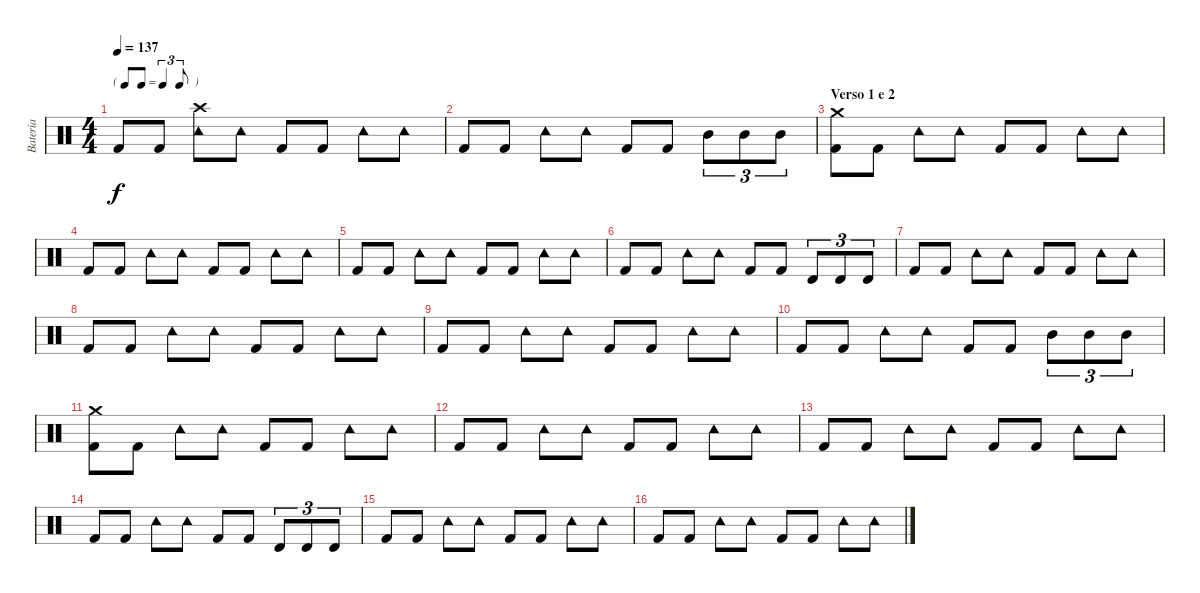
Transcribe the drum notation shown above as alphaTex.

\track ("Bateria" "Bateria") {instrument percussion}
\staff {score}
\articulation defaults
\ts (4 4)
\tf triplet8th
\tempo 137
\clef neutral
\ks c "Kick (hit) 2".8{dy f} "Kick (hit) 2".8
("Tambourine (hit)" "Crash high (hit)").8 "Tambourine (hit)".8 "Kick (hit) 2".8 "Kick (hit) 2".8 "Tambourine (hit)".8 "Tambourine (hit)".8 |
"Kick (hit) 2".8 "Kick (hit) 2".8 "Tambourine (hit)".8 "Tambourine (hit)".8 "Kick (hit) 2".8 "Kick (hit) 2".8 "Mid Tom (hit)".8{tu (3 2)} "Mid Tom (hit)".8{tu (3 2)} "Mid Tom (hit)".8{tu (3 2)} |
\section ("" "Verso 1 e 2")
("Kick (hit) 2" "Crash medium (hit)").8 "Kick (hit) 2".8 "Tambourine (hit)".8 "Tambourine (hit)".8 "Kick (hit) 2".8 "Kick (hit) 2".8 "Tambourine (hit)".8 "Tambourine (hit)".8 |
"Kick (hit) 2".8 "Kick (hit) 2".8 "Tambourine (hit)".8 "Tambourine (hit)".8 "Kick (hit) 2".8 "Kick (hit) 2".8 "Tambourine (hit)".8 "Tambourine (hit)".8 |
"Kick (hit) 2".8 "Kick (hit) 2".8 "Tambourine (hit)".8 "Tambourine (hit)".8 "Kick (hit) 2".8 "Kick (hit) 2".8 "Tambourine (hit)".8 "Tambourine (hit)".8 |
"Kick (hit) 2".8 "Kick (hit) 2".8 "Tambourine (hit)".8 "Tambourine (hit)".8 "Kick (hit) 2".8 "Kick (hit) 2".8 "Timbale high (hit)".8{tu (3 2)} "Timbale high (hit)".8{tu (3 2)} "Timbale high (hit)".8{tu (3 2)} |
"Kick (hit) 2".8 "Kick (hit) 2".8 "Tambourine (hit)".8 "Tambourine (hit)".8 "Kick (hit) 2".8 "Kick (hit) 2".8 "Tambourine (hit)".8 "Tambourine (hit)".8 |
"Kick (hit) 2".8 "Kick (hit) 2".8 "Tambourine (hit)".8 "Tambourine (hit)".8 "Kick (hit) 2".8 "Kick (hit) 2".8 "Tambourine (hit)".8 "Tambourine (hit)".8 |
"Kick (hit) 2".8 "Kick (hit) 2".8 "Tambourine (hit)".8 "Tambourine (hit)".8 "Kick (hit) 2".8 "Kick (hit) 2".8 "Tambourine (hit)".8 "Tambourine (hit)".8 |
"Kick (hit) 2".8 "Kick (hit) 2".8 "Tambourine (hit)".8 "Tambourine (hit)".8 "Kick (hit) 2".8 "Kick (hit) 2".8 "Mid Tom (hit)".8{tu (3 2)} "Mid Tom (hit)".8{tu (3 2)} "Mid Tom (hit)".8{tu (3 2)} |
("Kick (hit) 2" "Crash medium (hit)").8 "Kick (hit) 2".8 "Tambourine (hit)".8 "Tambourine (hit)".8 "Kick (hit) 2".8 "Kick (hit) 2".8 "Tambourine (hit)".8 "Tambourine (hit)".8 |
"Kick (hit) 2".8 "Kick (hit) 2".8 "Tambourine (hit)".8 "Tambourine (hit)".8 "Kick (hit) 2".8 "Kick (hit) 2".8 "Tambourine (hit)".8 "Tambourine (hit)".8 |
"Kick (hit) 2".8 "Kick (hit) 2".8 "Tambourine (hit)".8 "Tambourine (hit)".8 "Kick (hit) 2".8 "Kick (hit) 2".8 "Tambourine (hit)".8 "Tambourine (hit)".8 |
"Kick (hit) 2".8 "Kick (hit) 2".8 "Tambourine (hit)".8 "Tambourine (hit)".8 "Kick (hit) 2".8 "Kick (hit) 2".8 "Timbale high (hit)".8{tu (3 2)} "Timbale high (hit)".8{tu (3 2)} "Timbale high (hit)".8{tu (3 2)} |
"Kick (hit) 2".8 "Kick (hit) 2".8 "Tambourine (hit)".8 "Tambourine (hit)".8 "Kick (hit) 2".8 "Kick (hit) 2".8 "Tambourine (hit)".8 "Tambourine (hit)".8 |
"Kick (hit) 2".8 "Kick (hit) 2".8 "Tambourine (hit)".8 "Tambourine (hit)".8 "Kick (hit) 2".8 "Kick (hit) 2".8 "Tambourine (hit)".8 "Tambourine (hit)".8
